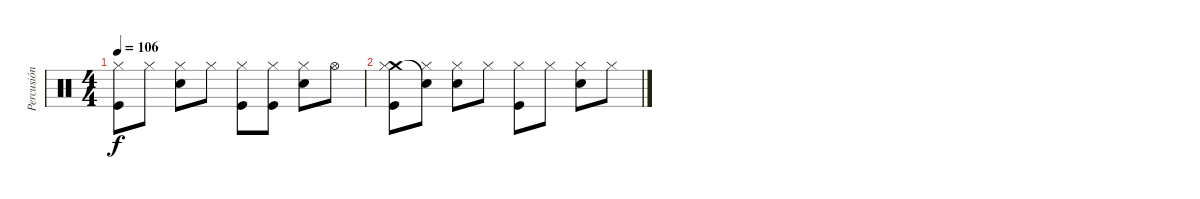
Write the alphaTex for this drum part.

\track ("Percusión" "Percusión") {instrument percussion}
\staff {score}
\articulation defaults
\ts (4 4)
\tempo 106
\clef neutral
\ks c
("Hi-Hat (closed)" "Kick (hit)").8{dy f} "Hi-Hat (closed)".8 ("Hi-Hat (closed)" "Snare (hit) 2").8 "Hi-Hat (closed)".8 ("Hi-Hat (closed)" "Kick (hit)").8 ("Hi-Hat (closed)" "Kick (hit)").8 ("Hi-Hat (closed)" "Snare (hit) 2").8 "Hi-Hat (open)".8 |
("Crash medium (hit)" "Hi-Hat (closed)" "Kick (hit)").8 ("Snare (hit)"{t} "Hi-Hat (closed)").8 ("Hi-Hat (closed)" "Snare (hit) 2").8 "Hi-Hat (closed)".8 ("Hi-Hat (closed)" "Kick (hit)").8 "Hi-Hat (closed)".8 ("Hi-Hat (closed)" "Snare (hit) 2").8 "Hi-Hat (closed)".8
